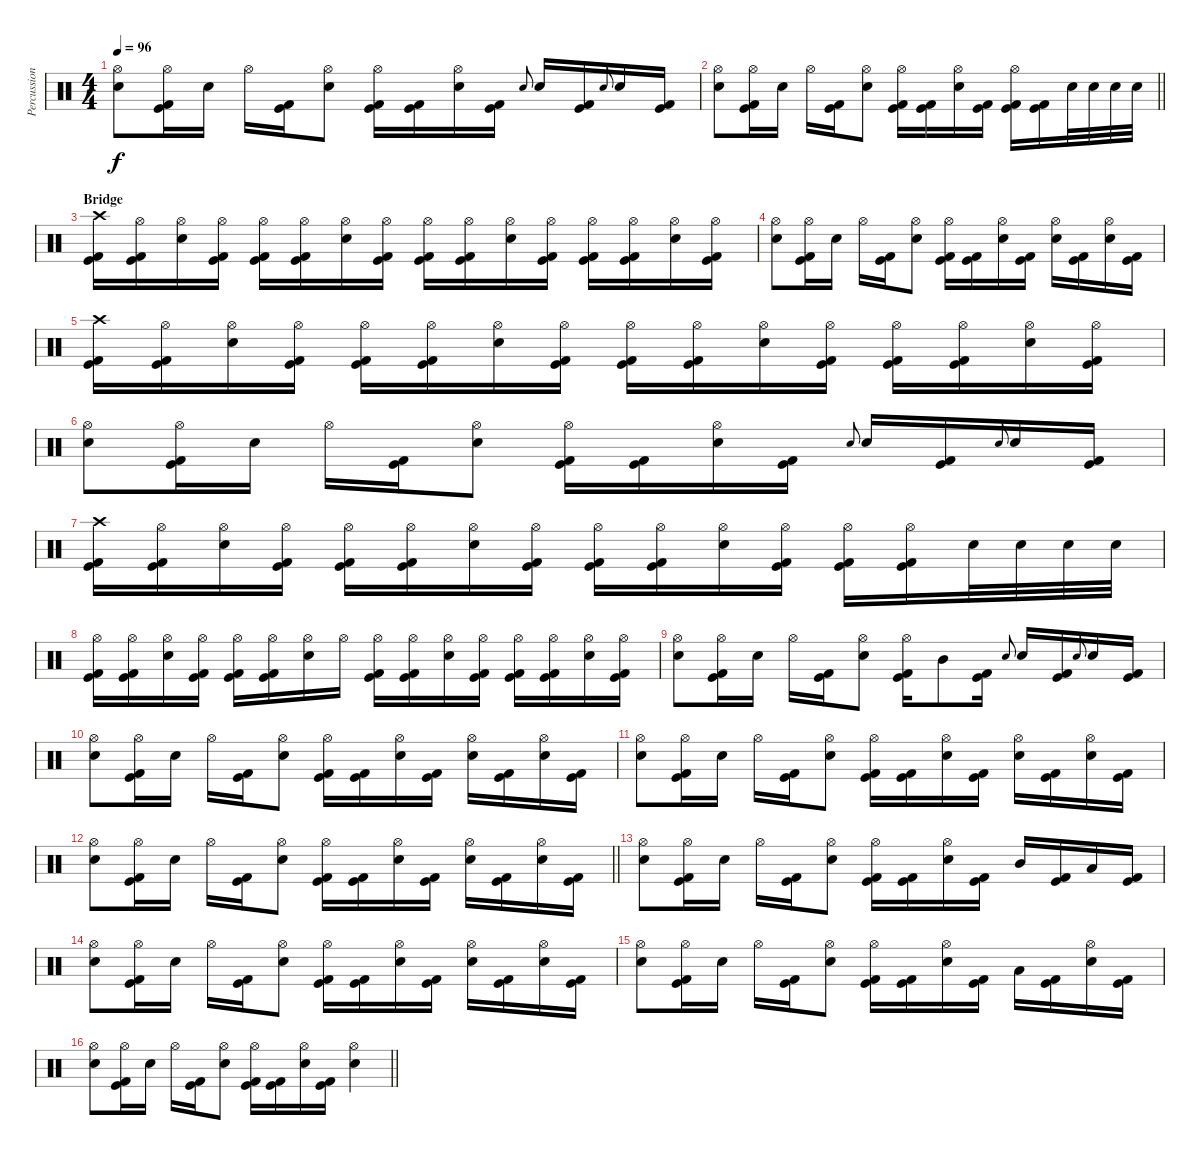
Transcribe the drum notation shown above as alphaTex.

\track ("Percussion" "Percussion") {instrument percussion}
\staff {score}
\articulation defaults
\ts (4 4)
\tempo 96
\clef neutral
\ks c
("Hi-Hat (open)" "Electric Snare (hit)").8{dy f} ("Hi-Hat (open)" "Kick (hit)" "Kick (hit) 2").16 "Electric Snare (hit)".16 "Hi-Hat (open)".16 ("Kick (hit)" "Kick (hit) 2").16 ("Hi-Hat (open)" "Electric Snare (hit)").8 ("Hi-Hat (open)" "Kick (hit)" "Kick (hit) 2").16 ("Kick (hit)" "Kick (hit) 2").16 ("Hi-Hat (open)" "Electric Snare (hit)").16 ("Kick (hit)" "Kick (hit) 2").16 "Electric Snare (hit)".8{gr onbeat} "Electric Snare (hit)".16 ("Kick (hit)" "Kick (hit) 2").16 "Electric Snare (hit)".8{gr onbeat} "Electric Snare (hit)".16 ("Kick (hit)" "Kick (hit) 2").16 |
\barLineRight lightlight
("Hi-Hat (open)" "Electric Snare (hit)").8 ("Hi-Hat (open)" "Kick (hit)" "Kick (hit) 2").16 "Electric Snare (hit)".16 "Hi-Hat (open)".16 ("Kick (hit)" "Kick (hit) 2").16 ("Hi-Hat (open)" "Electric Snare (hit)").8 ("Hi-Hat (open)" "Kick (hit)" "Kick (hit) 2").16 ("Kick (hit)" "Kick (hit) 2").16 ("Hi-Hat (open)" "Electric Snare (hit)").16 ("Kick (hit)" "Kick (hit) 2").16 ("Hi-Hat (open)" "Kick (hit)" "Kick (hit) 2").16 ("Kick (hit)" "Kick (hit) 2").16 "Electric Snare (hit)".32 "Electric Snare (hit)".32 "Electric Snare (hit)".32 "Electric Snare (hit)".32 |
\section ("" "Bridge")
("Crash high (hit)" "Kick (hit)" "Kick (hit) 2").16 ("Hi-Hat (open)" "Kick (hit)" "Kick (hit) 2").16 ("Hi-Hat (open)" "Electric Snare (hit)").16 ("Hi-Hat (open)" "Kick (hit)" "Kick (hit) 2").16 ("Hi-Hat (open)" "Kick (hit)" "Kick (hit) 2").16 ("Hi-Hat (open)" "Kick (hit)" "Kick (hit) 2").16 ("Hi-Hat (open)" "Electric Snare (hit)").16 ("Hi-Hat (open)" "Kick (hit)" "Kick (hit) 2").16 ("Hi-Hat (open)" "Kick (hit)" "Kick (hit) 2").16 ("Hi-Hat (open)" "Kick (hit)" "Kick (hit) 2").16 ("Hi-Hat (open)" "Electric Snare (hit)").16 ("Hi-Hat (open)" "Kick (hit)" "Kick (hit) 2").16 ("Hi-Hat (open)" "Kick (hit)" "Kick (hit) 2").16 ("Hi-Hat (open)" "Kick (hit)" "Kick (hit) 2").16 ("Hi-Hat (open)" "Electric Snare (hit)").16 ("Hi-Hat (open)" "Kick (hit)" "Kick (hit) 2").16 |
("Hi-Hat (open)" "Electric Snare (hit)").8 ("Hi-Hat (open)" "Kick (hit)" "Kick (hit) 2").16 "Electric Snare (hit)".16 "Hi-Hat (open)".16 ("Kick (hit)" "Kick (hit) 2").16 ("Hi-Hat (open)" "Electric Snare (hit)").8 ("Hi-Hat (open)" "Kick (hit)" "Kick (hit) 2").16 ("Kick (hit)" "Kick (hit) 2").16 ("Hi-Hat (open)" "Electric Snare (hit)").16 ("Kick (hit)" "Kick (hit) 2").16 ("Hi-Hat (open)" "Electric Snare (hit)").16 ("Kick (hit)" "Kick (hit) 2").16 ("Hi-Hat (open)" "Electric Snare (hit)").16 ("Kick (hit)" "Kick (hit) 2").16 |
("Crash high (hit)" "Kick (hit)" "Kick (hit) 2").16 ("Hi-Hat (open)" "Kick (hit)" "Kick (hit) 2").16 ("Hi-Hat (open)" "Electric Snare (hit)").16 ("Hi-Hat (open)" "Kick (hit)" "Kick (hit) 2").16 ("Hi-Hat (open)" "Kick (hit)" "Kick (hit) 2").16 ("Hi-Hat (open)" "Kick (hit)" "Kick (hit) 2").16 ("Hi-Hat (open)" "Electric Snare (hit)").16 ("Hi-Hat (open)" "Kick (hit)" "Kick (hit) 2").16 ("Hi-Hat (open)" "Kick (hit)" "Kick (hit) 2").16 ("Hi-Hat (open)" "Kick (hit)" "Kick (hit) 2").16 ("Hi-Hat (open)" "Electric Snare (hit)").16 ("Hi-Hat (open)" "Kick (hit)" "Kick (hit) 2").16 ("Hi-Hat (open)" "Kick (hit)" "Kick (hit) 2").16 ("Hi-Hat (open)" "Kick (hit)" "Kick (hit) 2").16 ("Hi-Hat (open)" "Electric Snare (hit)").16 ("Hi-Hat (open)" "Kick (hit)" "Kick (hit) 2").16 |
("Hi-Hat (open)" "Electric Snare (hit)").8 ("Hi-Hat (open)" "Kick (hit)" "Kick (hit) 2").16 "Electric Snare (hit)".16 "Hi-Hat (open)".16 ("Kick (hit)" "Kick (hit) 2").16 ("Hi-Hat (open)" "Electric Snare (hit)").8 ("Hi-Hat (open)" "Kick (hit)" "Kick (hit) 2").16 ("Kick (hit)" "Kick (hit) 2").16 ("Hi-Hat (open)" "Electric Snare (hit)").16 ("Kick (hit)" "Kick (hit) 2").16 "Electric Snare (hit)".8{gr onbeat} "Electric Snare (hit)".16 ("Kick (hit)" "Kick (hit) 2").16 "Electric Snare (hit)".8{gr onbeat} "Electric Snare (hit)".16 ("Kick (hit)" "Kick (hit) 2").16 |
("Crash high (hit)" "Kick (hit)" "Kick (hit) 2").16 ("Hi-Hat (open)" "Kick (hit)" "Kick (hit) 2").16 ("Hi-Hat (open)" "Electric Snare (hit)").16 ("Hi-Hat (open)" "Kick (hit)" "Kick (hit) 2").16 ("Hi-Hat (open)" "Kick (hit)" "Kick (hit) 2").16 ("Hi-Hat (open)" "Kick (hit)" "Kick (hit) 2").16 ("Hi-Hat (open)" "Electric Snare (hit)").16 ("Hi-Hat (open)" "Kick (hit)" "Kick (hit) 2").16 ("Hi-Hat (open)" "Kick (hit)" "Kick (hit) 2").16 ("Hi-Hat (open)" "Kick (hit)" "Kick (hit) 2").16 ("Hi-Hat (open)" "Electric Snare (hit)").16 ("Hi-Hat (open)" "Kick (hit)" "Kick (hit) 2").16 ("Hi-Hat (open)" "Kick (hit)" "Kick (hit) 2").16 ("Hi-Hat (open)" "Kick (hit)" "Kick (hit) 2").16 "Electric Snare (hit)".32 "Electric Snare (hit)".32 "Electric Snare (hit)".32 "Electric Snare (hit)".32 |
("Hi-Hat (open)" "Kick (hit)" "Kick (hit) 2").16 ("Hi-Hat (open)" "Kick (hit)" "Kick (hit) 2").16 ("Hi-Hat (open)" "Electric Snare (hit)").16 ("Hi-Hat (open)" "Kick (hit)" "Kick (hit) 2").16 ("Hi-Hat (open)" "Kick (hit)" "Kick (hit) 2").16 ("Hi-Hat (open)" "Kick (hit)" "Kick (hit) 2").16 ("Hi-Hat (open)" "Electric Snare (hit)").16 "Hi-Hat (open)".16 ("Hi-Hat (open)" "Kick (hit)" "Kick (hit) 2").16 ("Hi-Hat (open)" "Kick (hit)" "Kick (hit) 2").16 ("Hi-Hat (open)" "Electric Snare (hit)").16 ("Hi-Hat (open)" "Kick (hit)" "Kick (hit) 2").16 ("Hi-Hat (open)" "Kick (hit)" "Kick (hit) 2").16 ("Hi-Hat (open)" "Kick (hit)" "Kick (hit) 2").16 ("Hi-Hat (open)" "Electric Snare (hit)").16 ("Hi-Hat (open)" "Kick (hit)" "Kick (hit) 2").16 |
("Hi-Hat (open)" "Electric Snare (hit)").8 ("Hi-Hat (open)" "Kick (hit)" "Kick (hit) 2").16 "Electric Snare (hit)".16 "Hi-Hat (open)".16 ("Kick (hit)" "Kick (hit) 2").16 ("Hi-Hat (open)" "Electric Snare (hit)").8 ("Hi-Hat (open)" "Kick (hit)" "Kick (hit) 2").16 "Mid Tom (hit)".8 ("Kick (hit)" "Kick (hit) 2").16 "Electric Snare (hit)".8{gr onbeat} "Electric Snare (hit)".16 ("Kick (hit)" "Kick (hit) 2").16 "Electric Snare (hit)".8{gr onbeat} "Electric Snare (hit)".16 ("Kick (hit)" "Kick (hit) 2").16 |
("Hi-Hat (open)" "Electric Snare (hit)").8 ("Hi-Hat (open)" "Kick (hit)" "Kick (hit) 2").16 "Electric Snare (hit)".16 "Hi-Hat (open)".16 ("Kick (hit)" "Kick (hit) 2").16 ("Hi-Hat (open)" "Electric Snare (hit)").8 ("Hi-Hat (open)" "Kick (hit)" "Kick (hit) 2").16 ("Kick (hit)" "Kick (hit) 2").16 ("Hi-Hat (open)" "Electric Snare (hit)").16 ("Kick (hit)" "Kick (hit) 2").16 ("Hi-Hat (open)" "Electric Snare (hit)").16 ("Kick (hit)" "Kick (hit) 2").16 ("Hi-Hat (open)" "Electric Snare (hit)").16 ("Kick (hit)" "Kick (hit) 2").16 |
("Hi-Hat (open)" "Electric Snare (hit)").8 ("Hi-Hat (open)" "Kick (hit)" "Kick (hit) 2").16 "Electric Snare (hit)".16 "Hi-Hat (open)".16 ("Kick (hit)" "Kick (hit) 2").16 ("Hi-Hat (open)" "Electric Snare (hit)").8 ("Hi-Hat (open)" "Kick (hit)" "Kick (hit) 2").16 ("Kick (hit)" "Kick (hit) 2").16 ("Hi-Hat (open)" "Electric Snare (hit)").16 ("Kick (hit)" "Kick (hit) 2").16 ("Hi-Hat (open)" "Electric Snare (hit)").16 ("Kick (hit)" "Kick (hit) 2").16 ("Hi-Hat (open)" "Electric Snare (hit)").16 ("Kick (hit)" "Kick (hit) 2").16 |
\barLineRight lightlight
("Hi-Hat (open)" "Electric Snare (hit)").8 ("Hi-Hat (open)" "Kick (hit)" "Kick (hit) 2").16 "Electric Snare (hit)".16 "Hi-Hat (open)".16 ("Kick (hit)" "Kick (hit) 2").16 ("Hi-Hat (open)" "Electric Snare (hit)").8 ("Hi-Hat (open)" "Kick (hit)" "Kick (hit) 2").16 ("Kick (hit)" "Kick (hit) 2").16 ("Hi-Hat (open)" "Electric Snare (hit)").16 ("Kick (hit)" "Kick (hit) 2").16 ("Hi-Hat (open)" "Electric Snare (hit)").16 ("Kick (hit)" "Kick (hit) 2").16 ("Hi-Hat (open)" "Electric Snare (hit)").16 ("Kick (hit)" "Kick (hit) 2").16 |
\section ("" "")
("Hi-Hat (open)" "Electric Snare (hit)").8 ("Hi-Hat (open)" "Kick (hit)" "Kick (hit) 2").16 "Electric Snare (hit)".16 "Hi-Hat (open)".16 ("Kick (hit)" "Kick (hit) 2").16 ("Hi-Hat (open)" "Electric Snare (hit)").8 ("Hi-Hat (open)" "Kick (hit)" "Kick (hit) 2").16 ("Kick (hit)" "Kick (hit) 2").16 ("Hi-Hat (open)" "Electric Snare (hit)").16 ("Kick (hit)" "Kick (hit) 2").16 "Mid Tom (hit)".16 ("Kick (hit)" "Kick (hit) 2").16 "Low Tom (hit)".16 ("Kick (hit)" "Kick (hit) 2").16 |
("Hi-Hat (open)" "Electric Snare (hit)").8 ("Hi-Hat (open)" "Kick (hit)" "Kick (hit) 2").16 "Electric Snare (hit)".16 "Hi-Hat (open)".16 ("Kick (hit)" "Kick (hit) 2").16 ("Hi-Hat (open)" "Electric Snare (hit)").8 ("Hi-Hat (open)" "Kick (hit)" "Kick (hit) 2").16 ("Kick (hit)" "Kick (hit) 2").16 ("Hi-Hat (open)" "Electric Snare (hit)").16 ("Kick (hit)" "Kick (hit) 2").16 ("Hi-Hat (open)" "Electric Snare (hit)").16 ("Kick (hit)" "Kick (hit) 2").16 ("Hi-Hat (open)" "Electric Snare (hit)").16 ("Kick (hit)" "Kick (hit) 2").16 |
("Hi-Hat (open)" "Electric Snare (hit)").8 ("Hi-Hat (open)" "Kick (hit)" "Kick (hit) 2").16 "Electric Snare (hit)".16 "Hi-Hat (open)".16 ("Kick (hit)" "Kick (hit) 2").16 ("Hi-Hat (open)" "Electric Snare (hit)").8 ("Hi-Hat (open)" "Kick (hit)" "Kick (hit) 2").16 ("Kick (hit)" "Kick (hit) 2").16 ("Hi-Hat (open)" "Electric Snare (hit)").16 ("Kick (hit)" "Kick (hit) 2").16 "Low Tom (hit)".16 ("Kick (hit)" "Kick (hit) 2").16 ("Hi-Hat (open)" "Electric Snare (hit)").16 ("Kick (hit)" "Kick (hit) 2").16 |
\barLineRight lightlight
("Hi-Hat (open)" "Electric Snare (hit)").8 ("Hi-Hat (open)" "Kick (hit)" "Kick (hit) 2").16 "Electric Snare (hit)".16 "Hi-Hat (open)".16 ("Kick (hit)" "Kick (hit) 2").16 ("Hi-Hat (open)" "Electric Snare (hit)").8 ("Hi-Hat (open)" "Kick (hit)" "Kick (hit) 2").16 ("Kick (hit)" "Kick (hit) 2").16 ("Hi-Hat (open)" "Electric Snare (hit)").16 ("Kick (hit)" "Kick (hit) 2").16 ("Hi-Hat (open)" "Electric Snare (hit)").4
